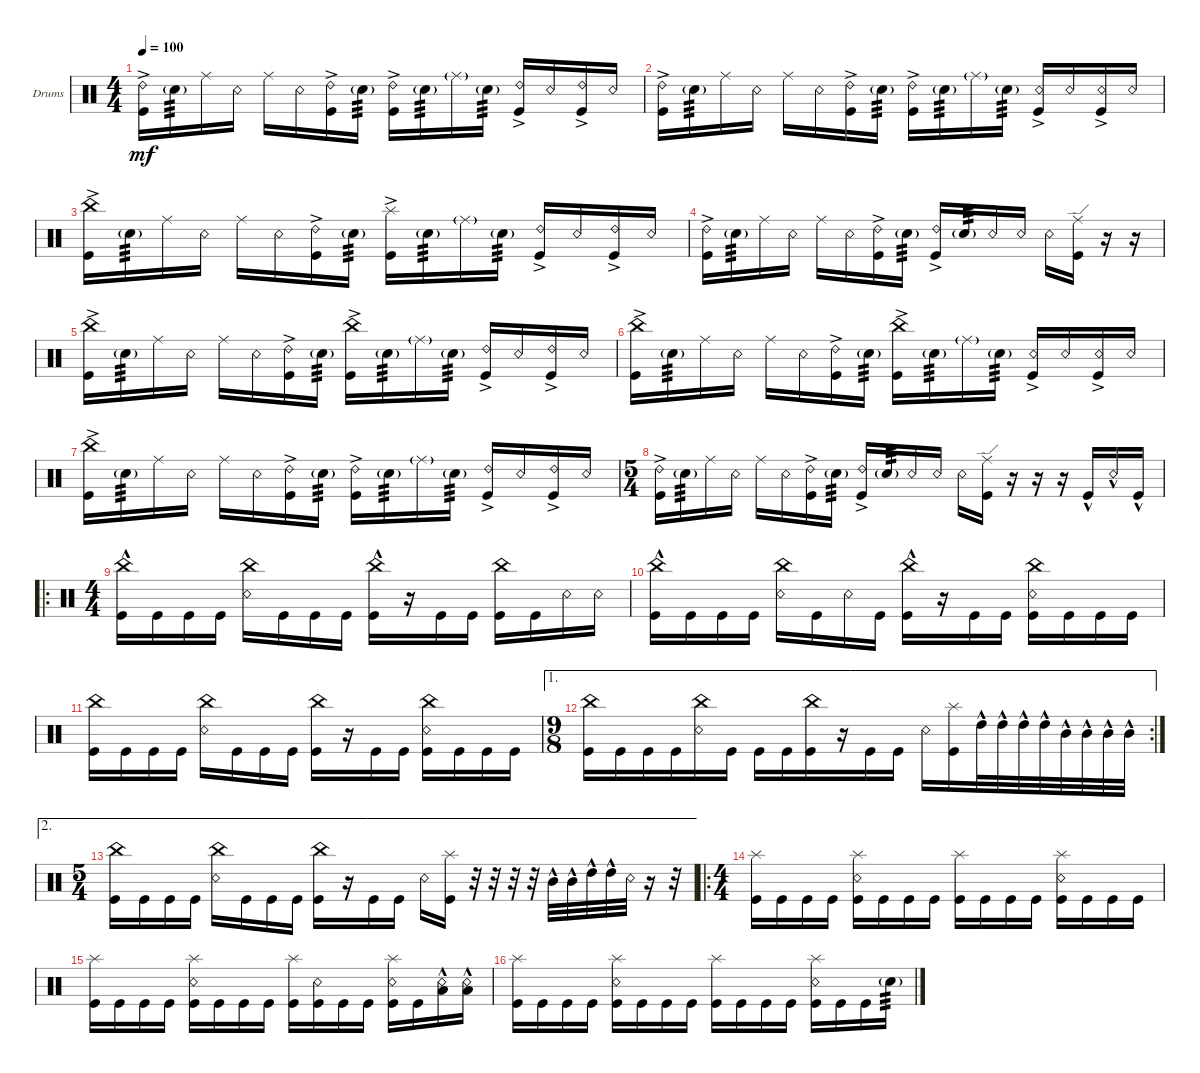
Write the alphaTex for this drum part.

\defaultSystemsLayout 4
\bracketExtendMode groupsimilarinstruments
\firstSystemTrackNameOrientation horizontal
\otherSystemsTrackNameOrientation horizontal
\track ("Drumkit" "Drums") {instrument percussion}
\staff {score}
\articulation defaults
\ts (4 4)
\tempo 100
\clef neutral
\ks c
("Ride (bell) 2" "Kick (hit)"{ac}).16{dy mf} "Snare (hit) 2"{g}.16{tp 3} "Ride (middle)".16 "Snare (rim shot)".16 "Ride (middle)".16 "Snare (rim shot)".16 ("Ride (bell) 2" "Kick (hit)"{ac}).16 "Snare (hit) 2"{g}.16{tp 3} ("Ride (bell) 2" "Kick (hit)"{ac}).16 "Snare (hit) 2"{g}.16{tp 3} "Ride (middle)"{g}.16 "Snare (hit) 2"{g}.16{tp 3} ("Kick (hit)"{ac} "Ride (bell) 2").16 "Snare (rim shot)".16 ("Kick (hit)"{ac} "Ride (bell) 2").16 "Snare (rim shot)".16 |
("Ride (bell) 2" "Kick (hit)"{ac}).16 "Snare (hit) 2"{g}.16{tp 3} "Ride (middle)".16 "Snare (rim shot)".16 "Ride (middle)".16 "Snare (rim shot)".16 ("Ride (bell) 2" "Kick (hit)"{ac}).16 "Snare (hit) 2"{g}.16{tp 3} ("Ride (bell) 2" "Kick (hit)"{ac}).16 "Snare (hit) 2"{g}.16{tp 3} "Ride (middle)"{g}.16 "Snare (hit) 2"{g}.16{tp 3} ("Kick (hit)"{ac} "Snare (rim shot)").16 "Snare (rim shot)".16 ("Kick (hit)"{ac} "Snare (rim shot)").16 "Snare (rim shot)".16 |
("Kick (hit)"{ac} "China (hit)").16 "Snare (hit) 2"{g}.16{tp 3} "Ride (middle)".16 "Snare (rim shot)".16 "Ride (middle)".16 "Snare (rim shot)".16 ("Ride (bell) 2" "Kick (hit)"{ac}).16 "Snare (hit) 2"{g}.16{tp 3} ("Kick (hit)"{ac} "Splash (hit)").16 "Snare (hit) 2"{g}.16{tp 3} "Ride (middle)"{g}.16 "Snare (hit) 2"{g}.16{tp 3} ("Kick (hit)"{ac} "Ride (bell) 2").16 "Snare (rim shot)".16 ("Kick (hit)"{ac} "Ride (bell) 2").16 "Snare (rim shot)".16 |
("Ride (bell) 2" "Kick (hit)"{ac}).16 "Snare (hit) 2"{g}.16{tp 3} "Ride (middle)".16 "Snare (rim shot)".16 "Ride (middle)".16 "Snare (rim shot)".16 ("Ride (bell) 2" "Kick (hit)"{ac}).16 "Snare (hit) 2"{g}.16{tp 3} ("Ride (bell) 2" "Kick (hit)"{ac}).16 "Snare (hit) 2"{g}.16{tp 3} "Snare (rim shot)".16 "Snare (rim shot)".16 "Snare (rim shot)".16 ("Ride (edge)" "Kick (hit)").16 r.16 r.16 |
("Kick (hit)"{ac} "China (hit)").16 "Snare (hit) 2"{g}.16{tp 3} "Ride (middle)".16 "Snare (rim shot)".16 "Ride (middle)".16 "Snare (rim shot)".16 ("Ride (bell) 2" "Kick (hit)"{ac}).16 "Snare (hit) 2"{g}.16{tp 3} ("Kick (hit)"{ac} "China (hit)").16 "Snare (hit) 2"{g}.16{tp 3} "Ride (middle)"{g}.16 "Snare (hit) 2"{g}.16{tp 3} ("Kick (hit)"{ac} "Ride (bell) 2").16 "Snare (rim shot)".16 ("Kick (hit)"{ac} "Ride (bell) 2").16 "Snare (rim shot)".16 |
("Kick (hit)"{ac} "China (hit)").16 "Snare (hit) 2"{g}.16{tp 3} "Ride (middle)".16 "Snare (rim shot)".16 "Ride (middle)".16 "Snare (rim shot)".16 ("Ride (bell) 2" "Kick (hit)"{ac}).16 "Snare (hit) 2"{g}.16{tp 3} ("Kick (hit)"{ac} "China (hit)").16 "Snare (hit) 2"{g}.16{tp 3} "Ride (middle)"{g}.16 "Snare (hit) 2"{g}.16{tp 3} ("Kick (hit)"{ac} "Snare (rim shot)").16 "Snare (rim shot)".16 ("Kick (hit)"{ac} "Snare (rim shot)").16 "Snare (rim shot)".16 |
("Kick (hit)"{ac} "China (hit)").16 "Snare (hit) 2"{g}.16{tp 3} "Ride (middle)".16 "Snare (rim shot)".16 "Ride (middle)".16 "Snare (rim shot)".16 ("Ride (bell) 2" "Kick (hit)"{ac}).16 "Snare (hit) 2"{g}.16{tp 3} ("Ride (bell) 2" "Kick (hit)"{ac}).16 "Snare (hit) 2"{g}.16{tp 3} "Ride (middle)"{g}.16 "Snare (hit) 2"{g}.16{tp 3} ("Kick (hit)"{ac} "Ride (bell) 2").16 "Snare (rim shot)".16 ("Kick (hit)"{ac} "Ride (bell) 2").16 "Snare (rim shot)".16 |
\ts (5 4)
("Ride (bell) 2" "Kick (hit)"{ac}).16 "Snare (hit) 2"{g}.16{tp 3} "Ride (middle)".16 "Snare (rim shot)".16 "Ride (middle)".16 "Snare (rim shot)".16 ("Ride (bell) 2" "Kick (hit)"{ac}).16 "Snare (hit) 2"{g}.16{tp 3} ("Ride (bell) 2" "Kick (hit)"{ac}).16 "Snare (hit) 2"{g}.16{tp 3} "Snare (rim shot)".16 "Snare (rim shot)".16 "Snare (rim shot)".16 ("Ride (edge)" "Kick (hit)").16 r.16 r.16 r.16 "Kick (hit)"{hac}.16 "Snare (rim shot)"{hac}.16 "Kick (hit)"{hac}.16 |
\ro
\ts (4 4)
("Kick (hit)"{hac} "China (hit)").16 "Kick (hit)".16 "Kick (hit)".16 "Kick (hit)".16 ("China (hit)" "Snare (rim shot)").16 "Kick (hit)".16 "Kick (hit)".16 "Kick (hit)".16 ("Kick (hit)"{hac} "China (hit)").16 r.16 "Kick (hit)".16 "Kick (hit)".16 ("Kick (hit)" "China (hit)").16 "Kick (hit)".16 "Snare (rim shot)".16 "Snare (rim shot)".16 |
("Kick (hit)"{hac} "China (hit)").16 "Kick (hit)".16 "Kick (hit)".16 "Kick (hit)".16 ("China (hit)" "Snare (rim shot)").16 "Kick (hit)".16 "Snare (rim shot)".16 "Kick (hit)".16 ("Kick (hit)"{hac} "China (hit)").16 r.16 "Kick (hit)".16 "Kick (hit)".16 ("Kick (hit)" "China (hit)" "Snare (rim shot)").16 "Kick (hit)".16 "Kick (hit)".16 "Kick (hit)".16 |
("Kick (hit)" "China (hit)").16 "Kick (hit)".16 "Kick (hit)".16 "Kick (hit)".16 ("China (hit)" "Snare (rim shot)").16 "Kick (hit)".16 "Kick (hit)".16 "Kick (hit)".16 ("Kick (hit)" "China (hit)").16 r.16 "Kick (hit)".16 "Kick (hit)".16 ("Kick (hit)" "China (hit)" "Snare (rim shot)").16 "Kick (hit)".16 "Kick (hit)".16 "Kick (hit)".16 |
\ae 1
\rc 2
\ts (9 8)
("Kick (hit)" "China (hit)").16 "Kick (hit)".16 "Kick (hit)".16 "Kick (hit)".16 ("China (hit)" "Snare (rim shot)").16 "Kick (hit)".16 "Kick (hit)".16 "Kick (hit)".16 ("Kick (hit)" "China (hit)").16 r.16 "Kick (hit)".16 "Kick (hit)".16 "Snare (rim shot)".16 ("Splash (hit)" "Kick (hit)").16 "High Tom (hit)"{hac}.32 "High Tom (hit)"{hac}.32 "High Tom (hit)"{hac}.32 "High Tom (hit)"{hac}.32 "Mid Tom (hit)"{hac}.32 "Mid Tom (hit)"{hac}.32 "Mid Tom (hit)"{hac}.32 "Mid Tom (hit)"{hac}.32 |
\ae 2
\ts (5 4)
("Kick (hit)" "China (hit)").16 "Kick (hit)".16 "Kick (hit)".16 "Kick (hit)".16 ("China (hit)" "Snare (rim shot)").16 "Kick (hit)".16 "Kick (hit)".16 "Kick (hit)".16 ("Kick (hit)" "China (hit)").16 r.16 "Kick (hit)".16 "Kick (hit)".16 "Snare (rim shot)".16 ("Splash (hit)" "Kick (hit)").16 r.32 r.32 r.32 r.32 "Mid Tom (hit)"{hac}.32 "Mid Tom (hit)"{hac}.32 "High Tom (hit)"{hac}.32 "High Tom (hit)"{hac}.32 "Snare (rim shot)".32 r.16 r.32 |
\ro
\ts (4 4)
("Splash (hit)" "Kick (hit)").16 "Kick (hit)".16 "Kick (hit)".16 "Kick (hit)".16 ("Kick (hit)" "Snare (rim shot)" "Splash (hit)").16 "Kick (hit)".16 "Kick (hit)".16 "Kick (hit)".16 ("Splash (hit)" "Kick (hit)").16 "Kick (hit)".16 "Kick (hit)".16 "Kick (hit)".16 ("Kick (hit)" "Snare (rim shot)" "Splash (hit)").16 "Kick (hit)".16 "Kick (hit)".16 "Kick (hit)".16 |
("Splash (hit)" "Kick (hit)").16 "Kick (hit)".16 "Kick (hit)".16 "Kick (hit)".16 ("Kick (hit)" "Snare (rim shot)" "Splash (hit)").16 "Kick (hit)".16 "Kick (hit)".16 "Kick (hit)".16 ("Splash (hit)" "Kick (hit)").16 ("Kick (hit)" "Snare (rim shot)").16 "Kick (hit)".16 "Kick (hit)".16 ("Kick (hit)" "Snare (rim shot)" "Splash (hit)").16 "Kick (hit)".16 ("Snare (rim shot)"{hac} "Low Tom (hit)"{hac}).16 ("Snare (rim shot)"{hac} "Low Tom (hit)"{hac}).16 |
("Splash (hit)" "Kick (hit)").16 "Kick (hit)".16 "Kick (hit)".16 "Kick (hit)".16 ("Kick (hit)" "Snare (rim shot)" "Splash (hit)").16 "Kick (hit)".16 "Kick (hit)".16 "Kick (hit)".16 ("Splash (hit)" "Kick (hit)").16 "Kick (hit)".16 "Kick (hit)".16 "Kick (hit)".16 ("Kick (hit)" "Snare (rim shot)" "Splash (hit)").16 "Kick (hit)".16 "Kick (hit)".16 "Snare (hit) 2"{g}.16{tp 3}
